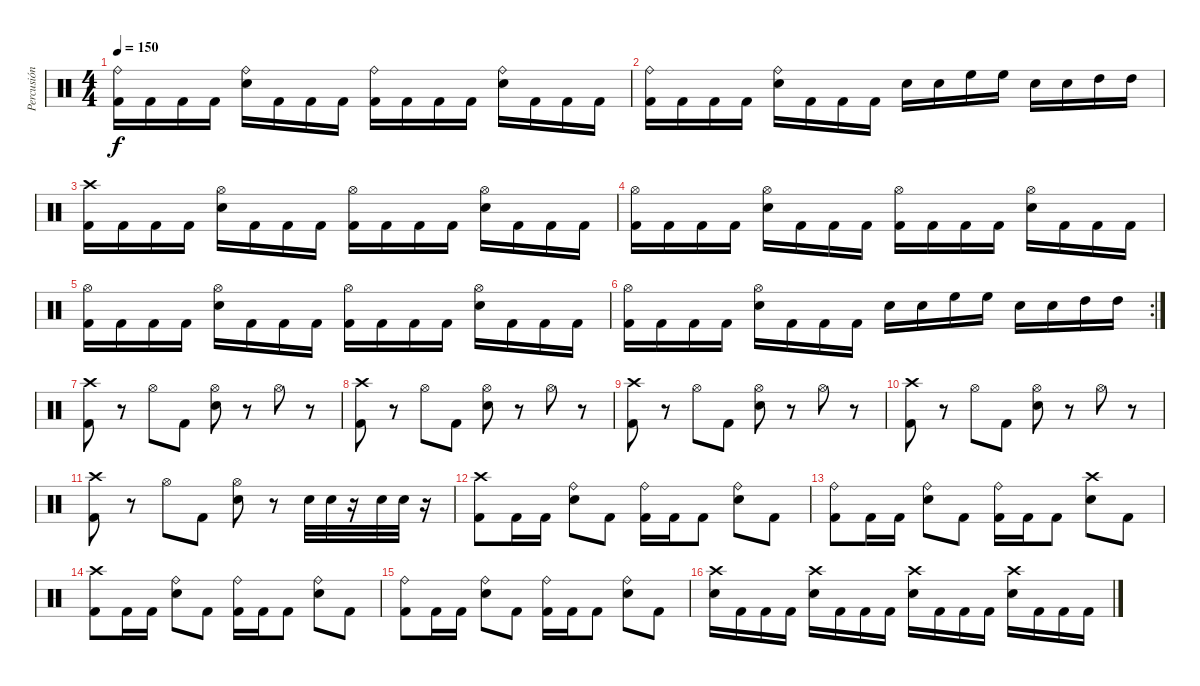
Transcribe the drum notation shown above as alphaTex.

\track ("Percusión" "Percusión") {instrument percussion}
\staff {score}
\articulation defaults
\ts (4 4)
\tempo 150
\clef neutral
\ks c
("Ride (bell)" "Kick (hit) 2").16{dy f} "Kick (hit) 2".16 "Kick (hit) 2".16 "Kick (hit) 2".16 ("Ride (bell)" "Electric Snare (hit)").16 "Kick (hit) 2".16 "Kick (hit) 2".16 "Kick (hit) 2".16 ("Ride (bell)" "Kick (hit) 2").16 "Kick (hit) 2".16 "Kick (hit) 2".16 "Kick (hit) 2".16 ("Ride (bell)" "Electric Snare (hit)").16 "Kick (hit) 2".16 "Kick (hit) 2".16 "Kick (hit) 2".16 |
("Ride (bell)" "Kick (hit) 2").16 "Kick (hit) 2".16 "Kick (hit) 2".16 "Kick (hit) 2".16 ("Ride (bell)" "Electric Snare (hit)").16 "Kick (hit) 2".16 "Kick (hit) 2".16 "Kick (hit) 2".16 "Electric Snare (hit)".16 "Electric Snare (hit)".16 "High Floor Tom (hit)".16 "High Floor Tom (hit)".16 "Electric Snare (hit)".16 "Electric Snare (hit)".16 "High Tom (hit)".16 "High Tom (hit)".16 |
("Crash high (hit)" "Kick (hit) 2").16 "Kick (hit) 2".16 "Kick (hit) 2".16 "Kick (hit) 2".16 ("Hi-Hat (open)" "Electric Snare (hit)").16 "Kick (hit) 2".16 "Kick (hit) 2".16 "Kick (hit) 2".16 ("Hi-Hat (open)" "Kick (hit) 2").16 "Kick (hit) 2".16 "Kick (hit) 2".16 "Kick (hit) 2".16 ("Hi-Hat (open)" "Electric Snare (hit)").16 "Kick (hit) 2".16 "Kick (hit) 2".16 "Kick (hit) 2".16 |
("Hi-Hat (open)" "Kick (hit) 2").16 "Kick (hit) 2".16 "Kick (hit) 2".16 "Kick (hit) 2".16 ("Hi-Hat (open)" "Electric Snare (hit)").16 "Kick (hit) 2".16 "Kick (hit) 2".16 "Kick (hit) 2".16 ("Hi-Hat (open)" "Kick (hit) 2").16 "Kick (hit) 2".16 "Kick (hit) 2".16 "Kick (hit) 2".16 ("Hi-Hat (open)" "Electric Snare (hit)").16 "Kick (hit) 2".16 "Kick (hit) 2".16 "Kick (hit) 2".16 |
("Hi-Hat (open)" "Kick (hit) 2").16 "Kick (hit) 2".16 "Kick (hit) 2".16 "Kick (hit) 2".16 ("Hi-Hat (open)" "Electric Snare (hit)").16 "Kick (hit) 2".16 "Kick (hit) 2".16 "Kick (hit) 2".16 ("Hi-Hat (open)" "Kick (hit) 2").16 "Kick (hit) 2".16 "Kick (hit) 2".16 "Kick (hit) 2".16 ("Hi-Hat (open)" "Electric Snare (hit)").16 "Kick (hit) 2".16 "Kick (hit) 2".16 "Kick (hit) 2".16 |
\rc 2
("Hi-Hat (open)" "Kick (hit) 2").16 "Kick (hit) 2".16 "Kick (hit) 2".16 "Kick (hit) 2".16 ("Hi-Hat (open)" "Electric Snare (hit)").16 "Kick (hit) 2".16 "Kick (hit) 2".16 "Kick (hit) 2".16 "Electric Snare (hit)".16 "Electric Snare (hit)".16 "High Floor Tom (hit)".16 "High Floor Tom (hit)".16 "Electric Snare (hit)".16 "Electric Snare (hit)".16 "High Tom (hit)".16 "High Tom (hit)".16 |
("Crash high (hit)" "Kick (hit) 2").8 r.8 "Hi-Hat (open)".8 "Kick (hit) 2".8 ("Hi-Hat (open)" "Electric Snare (hit)").8 r.8 "Hi-Hat (open)".8 r.8 |
("Crash high (hit)" "Kick (hit) 2").8 r.8 "Hi-Hat (open)".8 "Kick (hit) 2".8 ("Hi-Hat (open)" "Electric Snare (hit)").8 r.8 "Hi-Hat (open)".8 r.8 |
("Crash high (hit)" "Kick (hit) 2").8 r.8 "Hi-Hat (open)".8 "Kick (hit) 2".8 ("Hi-Hat (open)" "Electric Snare (hit)").8 r.8 "Hi-Hat (open)".8 r.8 |
("Crash high (hit)" "Kick (hit) 2").8 r.8 "Hi-Hat (open)".8 "Kick (hit) 2".8 ("Hi-Hat (open)" "Electric Snare (hit)").8 r.8 "Hi-Hat (open)".8 r.8 |
("Crash high (hit)" "Kick (hit) 2").8 r.8 "Hi-Hat (open)".8 "Kick (hit) 2".8 ("Hi-Hat (open)" "Electric Snare (hit)").8 r.8 "Electric Snare (hit)".32 "Electric Snare (hit)".32 r.16 "Electric Snare (hit)".32 "Electric Snare (hit)".32 r.16 |
("Crash high (hit)" "Kick (hit) 2").8 "Kick (hit) 2".16 "Kick (hit) 2".16 ("Ride (bell)" "Electric Snare (hit)").8 "Kick (hit) 2".8 ("Ride (bell)" "Kick (hit) 2").16 "Kick (hit) 2".16 "Kick (hit) 2".8 ("Ride (bell)" "Electric Snare (hit)").8 "Kick (hit) 2".8 |
("Ride (bell)" "Kick (hit) 2").8 "Kick (hit) 2".16 "Kick (hit) 2".16 ("Ride (bell)" "Electric Snare (hit)").8 "Kick (hit) 2".8 ("Ride (bell)" "Kick (hit) 2").16 "Kick (hit) 2".16 "Kick (hit) 2".8 ("Crash high (hit)" "Electric Snare (hit)").8 "Kick (hit) 2".8 |
("Crash high (hit)" "Kick (hit) 2").8 "Kick (hit) 2".16 "Kick (hit) 2".16 ("Ride (bell)" "Electric Snare (hit)").8 "Kick (hit) 2".8 ("Ride (bell)" "Kick (hit) 2").16 "Kick (hit) 2".16 "Kick (hit) 2".8 ("Ride (bell)" "Electric Snare (hit)").8 "Kick (hit) 2".8 |
("Ride (bell)" "Kick (hit) 2").8 "Kick (hit) 2".16 "Kick (hit) 2".16 ("Ride (bell)" "Electric Snare (hit)").8 "Kick (hit) 2".8 ("Ride (bell)" "Kick (hit) 2").16 "Kick (hit) 2".16 "Kick (hit) 2".8 ("Ride (bell)" "Electric Snare (hit)").8 "Kick (hit) 2".8 |
("Crash high (hit)" "Electric Snare (hit)").16 "Kick (hit) 2".16 "Kick (hit) 2".16 "Kick (hit) 2".16 ("Crash high (hit)" "Electric Snare (hit)").16 "Kick (hit) 2".16 "Kick (hit) 2".16 "Kick (hit) 2".16 ("Crash high (hit)" "Electric Snare (hit)").16 "Kick (hit) 2".16 "Kick (hit) 2".16 "Kick (hit) 2".16 ("Crash high (hit)" "Electric Snare (hit)").16 "Kick (hit) 2".16 "Kick (hit) 2".16 "Kick (hit) 2".16
